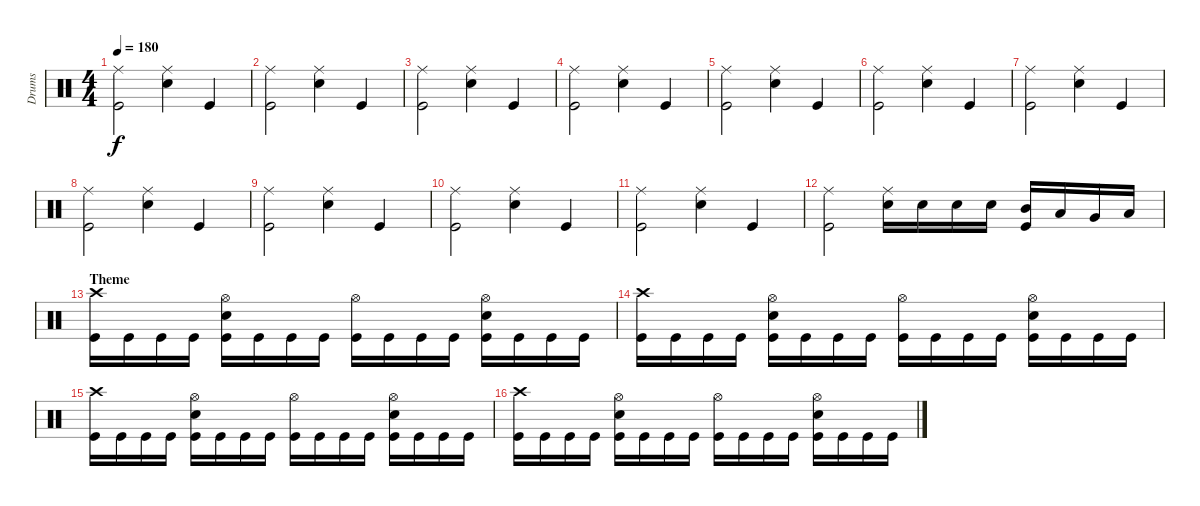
\track ("Drums" "Drums") {instrument percussion}
\staff {score}
\articulation defaults
\ts (4 4)
\tempo 180
\clef neutral
\ks c
("Ride (middle)" "Kick (hit)").2{dy f} ("Ride (middle)" "Snare (hit) 2").4 "Kick (hit)".4 |
("Ride (middle)" "Kick (hit)").2 ("Ride (middle)" "Snare (hit) 2").4 "Kick (hit)".4 |
("Ride (middle)" "Kick (hit)").2 ("Ride (middle)" "Snare (hit) 2").4 "Kick (hit)".4 |
("Ride (middle)" "Kick (hit)").2 ("Ride (middle)" "Snare (hit) 2").4 "Kick (hit)".4 |
("Ride (middle)" "Kick (hit)").2 ("Ride (middle)" "Snare (hit) 2").4 "Kick (hit)".4 |
("Ride (middle)" "Kick (hit)").2 ("Ride (middle)" "Snare (hit) 2").4 "Kick (hit)".4 |
("Ride (middle)" "Kick (hit)").2 ("Ride (middle)" "Snare (hit) 2").4 "Kick (hit)".4 |
("Ride (middle)" "Kick (hit)").2 ("Ride (middle)" "Snare (hit) 2").4 "Kick (hit)".4 |
("Ride (middle)" "Kick (hit)").2 ("Ride (middle)" "Snare (hit) 2").4 "Kick (hit)".4 |
("Ride (middle)" "Kick (hit)").2 ("Ride (middle)" "Snare (hit) 2").4 "Kick (hit)".4 |
("Ride (middle)" "Kick (hit)").2 ("Ride (middle)" "Snare (hit) 2").4 "Kick (hit)".4 |
("Ride (middle)" "Kick (hit)").2 ("Ride (middle)" "Snare (hit) 2").16 "Snare (hit) 2".16 "Snare (hit) 2".16 "Snare (hit) 2".16 ("Mid Tom (hit)" "Kick (hit)").16 "Low Tom (hit)".16 "Very Low Tom (hit)".16 "Low Floor Tom (hit)".16 |
\section ("" "Theme")
("Crash high (hit)" "Kick (hit)").16 "Kick (hit)".16 "Kick (hit)".16 "Kick (hit)".16 ("Hi-Hat (open)" "Snare (hit) 2" "Kick (hit)").16 "Kick (hit)".16 "Kick (hit)".16 "Kick (hit)".16 ("Hi-Hat (open)" "Kick (hit)").16 "Kick (hit)".16 "Kick (hit)".16 "Kick (hit)".16 ("Hi-Hat (open)" "Snare (hit) 2" "Kick (hit)").16 "Kick (hit)".16 "Kick (hit)".16 "Kick (hit)".16 |
("Crash high (hit)" "Kick (hit)").16 "Kick (hit)".16 "Kick (hit)".16 "Kick (hit)".16 ("Hi-Hat (open)" "Snare (hit) 2" "Kick (hit)").16 "Kick (hit)".16 "Kick (hit)".16 "Kick (hit)".16 ("Hi-Hat (open)" "Kick (hit)").16 "Kick (hit)".16 "Kick (hit)".16 "Kick (hit)".16 ("Hi-Hat (open)" "Snare (hit) 2" "Kick (hit)").16 "Kick (hit)".16 "Kick (hit)".16 "Kick (hit)".16 |
("Crash high (hit)" "Kick (hit)").16 "Kick (hit)".16 "Kick (hit)".16 "Kick (hit)".16 ("Hi-Hat (open)" "Snare (hit) 2" "Kick (hit)").16 "Kick (hit)".16 "Kick (hit)".16 "Kick (hit)".16 ("Hi-Hat (open)" "Kick (hit)").16 "Kick (hit)".16 "Kick (hit)".16 "Kick (hit)".16 ("Hi-Hat (open)" "Snare (hit) 2" "Kick (hit)").16 "Kick (hit)".16 "Kick (hit)".16 "Kick (hit)".16 |
("Crash high (hit)" "Kick (hit)").16 "Kick (hit)".16 "Kick (hit)".16 "Kick (hit)".16 ("Hi-Hat (open)" "Snare (hit) 2" "Kick (hit)").16 "Kick (hit)".16 "Kick (hit)".16 "Kick (hit)".16 ("Hi-Hat (open)" "Kick (hit)").16 "Kick (hit)".16 "Kick (hit)".16 "Kick (hit)".16 ("Hi-Hat (open)" "Snare (hit) 2" "Kick (hit)").16 "Kick (hit)".16 "Kick (hit)".16 "Kick (hit)".16
